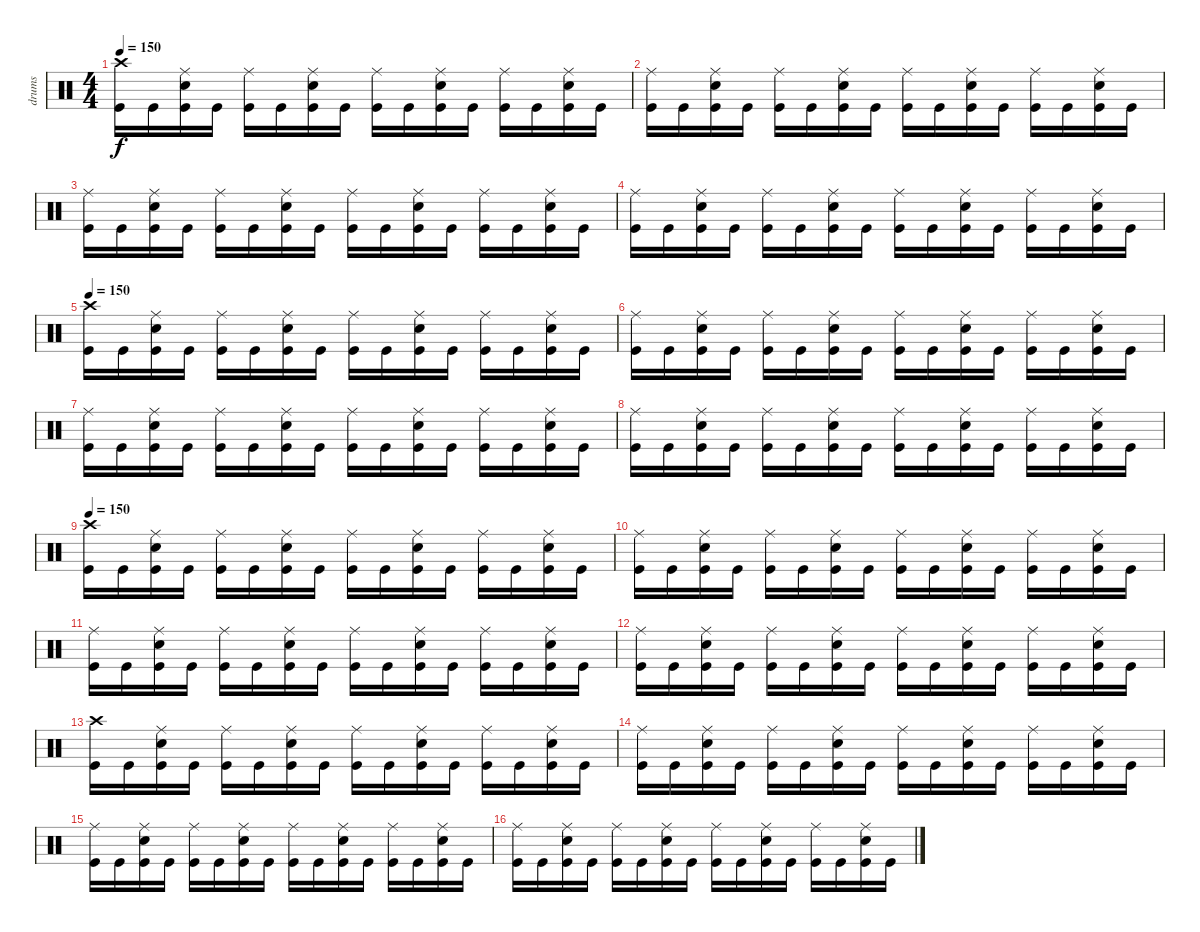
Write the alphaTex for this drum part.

\track ("drums" "drums") {instrument percussion}
\staff {score}
\articulation defaults
\ts (4 4)
\tempo 150
\clef neutral
\ks c
("Crash high (hit)" "Kick (hit)").16{dy f} "Kick (hit)".16 ("Ride (middle)" "Kick (hit)" "Electric Snare (hit)").16 "Kick (hit)".16 ("Ride (middle)" "Kick (hit)").16 "Kick (hit)".16 ("Ride (middle)" "Kick (hit)" "Electric Snare (hit)").16 "Kick (hit)".16 ("Ride (middle)" "Kick (hit)").16 "Kick (hit)".16 ("Ride (middle)" "Electric Snare (hit)" "Kick (hit)").16 "Kick (hit)".16 ("Ride (middle)" "Kick (hit)").16 "Kick (hit)".16 ("Ride (middle)" "Kick (hit)" "Electric Snare (hit)").16 "Kick (hit)".16 |
("Ride (middle)" "Kick (hit)").16 "Kick (hit)".16 ("Ride (middle)" "Kick (hit)" "Electric Snare (hit)").16 "Kick (hit)".16 ("Ride (middle)" "Kick (hit)").16 "Kick (hit)".16 ("Ride (middle)" "Kick (hit)" "Electric Snare (hit)").16 "Kick (hit)".16 ("Ride (middle)" "Kick (hit)").16 "Kick (hit)".16 ("Ride (middle)" "Electric Snare (hit)" "Kick (hit)").16 "Kick (hit)".16 ("Ride (middle)" "Kick (hit)").16 "Kick (hit)".16 ("Ride (middle)" "Kick (hit)" "Electric Snare (hit)").16 "Kick (hit)".16 |
("Ride (middle)" "Kick (hit)").16 "Kick (hit)".16 ("Ride (middle)" "Kick (hit)" "Electric Snare (hit)").16 "Kick (hit)".16 ("Ride (middle)" "Kick (hit)").16 "Kick (hit)".16 ("Ride (middle)" "Kick (hit)" "Electric Snare (hit)").16 "Kick (hit)".16 ("Ride (middle)" "Kick (hit)").16 "Kick (hit)".16 ("Ride (middle)" "Electric Snare (hit)" "Kick (hit)").16 "Kick (hit)".16 ("Ride (middle)" "Kick (hit)").16 "Kick (hit)".16 ("Ride (middle)" "Kick (hit)" "Electric Snare (hit)").16 "Kick (hit)".16 |
("Ride (middle)" "Kick (hit)").16 "Kick (hit)".16 ("Ride (middle)" "Kick (hit)" "Electric Snare (hit)").16 "Kick (hit)".16 ("Ride (middle)" "Kick (hit)").16 "Kick (hit)".16 ("Ride (middle)" "Kick (hit)" "Electric Snare (hit)").16 "Kick (hit)".16 ("Ride (middle)" "Kick (hit)").16 "Kick (hit)".16 ("Ride (middle)" "Electric Snare (hit)" "Kick (hit)").16 "Kick (hit)".16 ("Ride (middle)" "Kick (hit)").16 "Kick (hit)".16 ("Ride (middle)" "Kick (hit)" "Electric Snare (hit)").16 "Kick (hit)".16 |
\tempo 150
("Crash high (hit)" "Kick (hit)").16 "Kick (hit)".16 ("Ride (middle)" "Kick (hit)" "Electric Snare (hit)").16 "Kick (hit)".16 ("Ride (middle)" "Kick (hit)").16 "Kick (hit)".16 ("Ride (middle)" "Kick (hit)" "Electric Snare (hit)").16 "Kick (hit)".16 ("Ride (middle)" "Kick (hit)").16 "Kick (hit)".16 ("Ride (middle)" "Electric Snare (hit)" "Kick (hit)").16 "Kick (hit)".16 ("Ride (middle)" "Kick (hit)").16 "Kick (hit)".16 ("Ride (middle)" "Kick (hit)" "Electric Snare (hit)").16 "Kick (hit)".16 |
("Ride (middle)" "Kick (hit)").16 "Kick (hit)".16 ("Ride (middle)" "Kick (hit)" "Electric Snare (hit)").16 "Kick (hit)".16 ("Ride (middle)" "Kick (hit)").16 "Kick (hit)".16 ("Ride (middle)" "Kick (hit)" "Electric Snare (hit)").16 "Kick (hit)".16 ("Ride (middle)" "Kick (hit)").16 "Kick (hit)".16 ("Ride (middle)" "Electric Snare (hit)" "Kick (hit)").16 "Kick (hit)".16 ("Ride (middle)" "Kick (hit)").16 "Kick (hit)".16 ("Ride (middle)" "Kick (hit)" "Electric Snare (hit)").16 "Kick (hit)".16 |
("Ride (middle)" "Kick (hit)").16 "Kick (hit)".16 ("Ride (middle)" "Kick (hit)" "Electric Snare (hit)").16 "Kick (hit)".16 ("Ride (middle)" "Kick (hit)").16 "Kick (hit)".16 ("Ride (middle)" "Kick (hit)" "Electric Snare (hit)").16 "Kick (hit)".16 ("Ride (middle)" "Kick (hit)").16 "Kick (hit)".16 ("Ride (middle)" "Electric Snare (hit)" "Kick (hit)").16 "Kick (hit)".16 ("Ride (middle)" "Kick (hit)").16 "Kick (hit)".16 ("Ride (middle)" "Kick (hit)" "Electric Snare (hit)").16 "Kick (hit)".16 |
("Ride (middle)" "Kick (hit)").16 "Kick (hit)".16 ("Ride (middle)" "Kick (hit)" "Electric Snare (hit)").16 "Kick (hit)".16 ("Ride (middle)" "Kick (hit)").16 "Kick (hit)".16 ("Ride (middle)" "Kick (hit)" "Electric Snare (hit)").16 "Kick (hit)".16 ("Ride (middle)" "Kick (hit)").16 "Kick (hit)".16 ("Ride (middle)" "Electric Snare (hit)" "Kick (hit)").16 "Kick (hit)".16 ("Ride (middle)" "Kick (hit)").16 "Kick (hit)".16 ("Ride (middle)" "Kick (hit)" "Electric Snare (hit)").16 "Kick (hit)".16 |
\tempo 150
("Crash high (hit)" "Kick (hit)").16 "Kick (hit)".16 ("Ride (middle)" "Kick (hit)" "Electric Snare (hit)").16 "Kick (hit)".16 ("Ride (middle)" "Kick (hit)").16 "Kick (hit)".16 ("Ride (middle)" "Kick (hit)" "Electric Snare (hit)").16 "Kick (hit)".16 ("Ride (middle)" "Kick (hit)").16 "Kick (hit)".16 ("Ride (middle)" "Electric Snare (hit)" "Kick (hit)").16 "Kick (hit)".16 ("Ride (middle)" "Kick (hit)").16 "Kick (hit)".16 ("Ride (middle)" "Kick (hit)" "Electric Snare (hit)").16 "Kick (hit)".16 |
("Ride (middle)" "Kick (hit)").16 "Kick (hit)".16 ("Ride (middle)" "Kick (hit)" "Electric Snare (hit)").16 "Kick (hit)".16 ("Ride (middle)" "Kick (hit)").16 "Kick (hit)".16 ("Ride (middle)" "Kick (hit)" "Electric Snare (hit)").16 "Kick (hit)".16 ("Ride (middle)" "Kick (hit)").16 "Kick (hit)".16 ("Ride (middle)" "Electric Snare (hit)" "Kick (hit)").16 "Kick (hit)".16 ("Ride (middle)" "Kick (hit)").16 "Kick (hit)".16 ("Ride (middle)" "Kick (hit)" "Electric Snare (hit)").16 "Kick (hit)".16 |
("Ride (middle)" "Kick (hit)").16 "Kick (hit)".16 ("Ride (middle)" "Kick (hit)" "Electric Snare (hit)").16 "Kick (hit)".16 ("Ride (middle)" "Kick (hit)").16 "Kick (hit)".16 ("Ride (middle)" "Kick (hit)" "Electric Snare (hit)").16 "Kick (hit)".16 ("Ride (middle)" "Kick (hit)").16 "Kick (hit)".16 ("Ride (middle)" "Electric Snare (hit)" "Kick (hit)").16 "Kick (hit)".16 ("Ride (middle)" "Kick (hit)").16 "Kick (hit)".16 ("Ride (middle)" "Kick (hit)" "Electric Snare (hit)").16 "Kick (hit)".16 |
("Ride (middle)" "Kick (hit)").16 "Kick (hit)".16 ("Ride (middle)" "Kick (hit)" "Electric Snare (hit)").16 "Kick (hit)".16 ("Ride (middle)" "Kick (hit)").16 "Kick (hit)".16 ("Ride (middle)" "Kick (hit)" "Electric Snare (hit)").16 "Kick (hit)".16 ("Ride (middle)" "Kick (hit)").16 "Kick (hit)".16 ("Ride (middle)" "Electric Snare (hit)" "Kick (hit)").16 "Kick (hit)".16 ("Ride (middle)" "Kick (hit)").16 "Kick (hit)".16 ("Ride (middle)" "Kick (hit)" "Electric Snare (hit)").16 "Kick (hit)".16 |
("Crash high (hit)" "Kick (hit)").16 "Kick (hit)".16 ("Ride (middle)" "Kick (hit)" "Electric Snare (hit)").16 "Kick (hit)".16 ("Ride (middle)" "Kick (hit)").16 "Kick (hit)".16 ("Ride (middle)" "Kick (hit)" "Electric Snare (hit)").16 "Kick (hit)".16 ("Ride (middle)" "Kick (hit)").16 "Kick (hit)".16 ("Ride (middle)" "Electric Snare (hit)" "Kick (hit)").16 "Kick (hit)".16 ("Ride (middle)" "Kick (hit)").16 "Kick (hit)".16 ("Ride (middle)" "Kick (hit)" "Electric Snare (hit)").16 "Kick (hit)".16 |
("Ride (middle)" "Kick (hit)").16 "Kick (hit)".16 ("Ride (middle)" "Kick (hit)" "Electric Snare (hit)").16 "Kick (hit)".16 ("Ride (middle)" "Kick (hit)").16 "Kick (hit)".16 ("Ride (middle)" "Kick (hit)" "Electric Snare (hit)").16 "Kick (hit)".16 ("Ride (middle)" "Kick (hit)").16 "Kick (hit)".16 ("Ride (middle)" "Electric Snare (hit)" "Kick (hit)").16 "Kick (hit)".16 ("Ride (middle)" "Kick (hit)").16 "Kick (hit)".16 ("Ride (middle)" "Kick (hit)" "Electric Snare (hit)").16 "Kick (hit)".16 |
("Ride (middle)" "Kick (hit)").16 "Kick (hit)".16 ("Ride (middle)" "Kick (hit)" "Electric Snare (hit)").16 "Kick (hit)".16 ("Ride (middle)" "Kick (hit)").16 "Kick (hit)".16 ("Ride (middle)" "Kick (hit)" "Electric Snare (hit)").16 "Kick (hit)".16 ("Ride (middle)" "Kick (hit)").16 "Kick (hit)".16 ("Ride (middle)" "Electric Snare (hit)" "Kick (hit)").16 "Kick (hit)".16 ("Ride (middle)" "Kick (hit)").16 "Kick (hit)".16 ("Ride (middle)" "Kick (hit)" "Electric Snare (hit)").16 "Kick (hit)".16 |
("Ride (middle)" "Kick (hit)").16 "Kick (hit)".16 ("Ride (middle)" "Kick (hit)" "Electric Snare (hit)").16 "Kick (hit)".16 ("Ride (middle)" "Kick (hit)").16 "Kick (hit)".16 ("Ride (middle)" "Kick (hit)" "Electric Snare (hit)").16 "Kick (hit)".16 ("Ride (middle)" "Kick (hit)").16 "Kick (hit)".16 ("Ride (middle)" "Electric Snare (hit)" "Kick (hit)").16 "Kick (hit)".16 ("Ride (middle)" "Kick (hit)").16 "Kick (hit)".16 ("Ride (middle)" "Kick (hit)" "Electric Snare (hit)").16 "Kick (hit)".16
